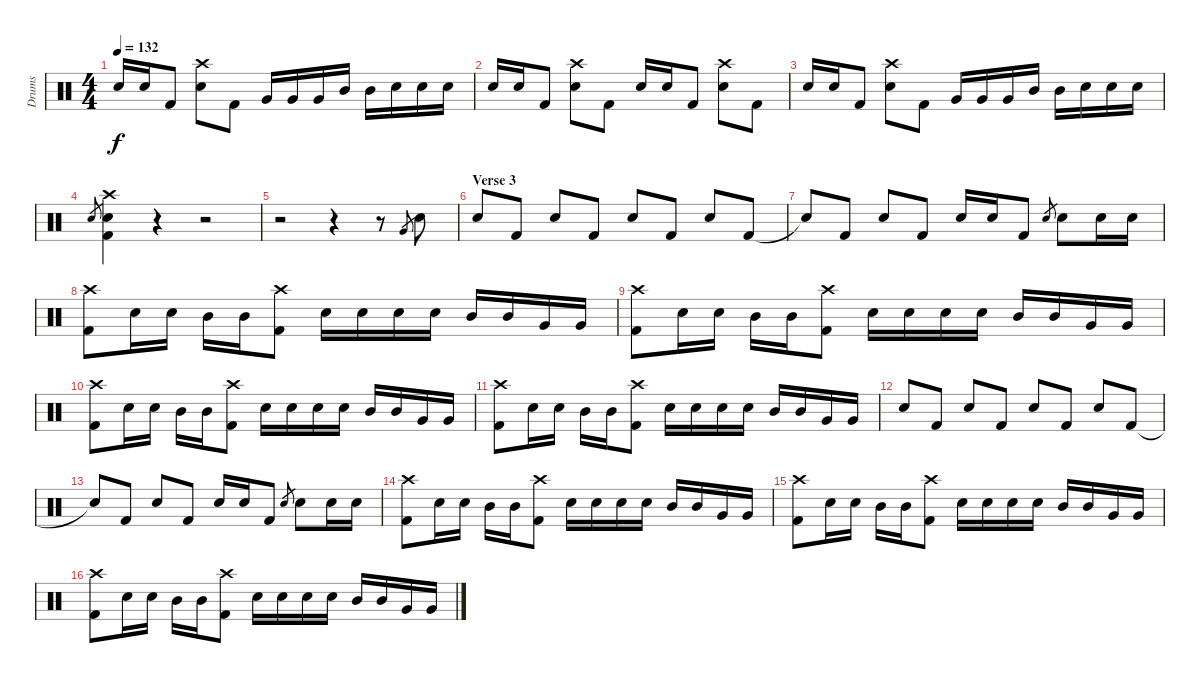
\track ("Drums" "Drums") {instrument percussion}
\staff {score}
\articulation defaults
\ts (4 4)
\tempo 132
\clef neutral
\ks c "Electric Snare (hit)".16{dy f} "Electric Snare (hit)".16 "Kick (hit) 2".8
("Crash high (hit)" "Electric Snare (hit)").8 "Kick (hit) 2".8 "Very Low Tom (hit)".16 "Very Low Tom (hit)".16 "Very Low Tom (hit)".16 "Mid Tom (hit)".16 "Mid Tom (hit)".16 "Electric Snare (hit)".16 "Electric Snare (hit)".16 "Electric Snare (hit)".16 |
"Electric Snare (hit)".16 "Electric Snare (hit)".16 "Kick (hit) 2".8 ("Crash high (hit)" "Electric Snare (hit)").8 "Kick (hit) 2".8 "Electric Snare (hit)".16 "Electric Snare (hit)".16 "Kick (hit) 2".8 ("Crash high (hit)" "Electric Snare (hit)").8 "Kick (hit) 2".8 |
"Electric Snare (hit)".16 "Electric Snare (hit)".16 "Kick (hit) 2".8 ("Crash high (hit)" "Electric Snare (hit)").8 "Kick (hit) 2".8 "Very Low Tom (hit)".16 "Very Low Tom (hit)".16 "Very Low Tom (hit)".16 "Mid Tom (hit)".16 "Mid Tom (hit)".16 "Electric Snare (hit)".16 "Electric Snare (hit)".16 "Electric Snare (hit)".16 |
"Electric Snare (hit)".8{gr} ("Crash high (hit)" "Electric Snare (hit)" "Kick (hit) 2").4 r.4 r.2 |
r.2 r.4 r.8 "Very Low Tom (hit)".8{gr} "Electric Snare (hit)".8 |
\section ("" "Verse 3")
"Electric Snare (hit)".8 "Kick (hit) 2".8 "Electric Snare (hit)".8 "Kick (hit) 2".8 "Electric Snare (hit)".8 "Kick (hit) 2".8 "Electric Snare (hit)".8 "Kick (hit) 2".8 |
"Snare (hit)"{t}.8 "Kick (hit) 2".8 "Electric Snare (hit)".8 "Kick (hit) 2".8 "Electric Snare (hit)".16 "Electric Snare (hit)".16 "Kick (hit) 2".8 "Electric Snare (hit)".8{gr} "Electric Snare (hit)".8 "Electric Snare (hit)".16 "Electric Snare (hit)".16 |
("Crash high (hit)" "Kick (hit) 2").8 "Electric Snare (hit)".16 "Electric Snare (hit)".16 "Mid Tom (hit)".16 "Mid Tom (hit)".16 ("Crash high (hit)" "Kick (hit) 2").8 "Electric Snare (hit)".16 "Electric Snare (hit)".16 "Electric Snare (hit)".16 "Electric Snare (hit)".16 "Mid Tom (hit)".16 "Mid Tom (hit)".16 "Very Low Tom (hit)".16 "Very Low Tom (hit)".16 |
("Crash high (hit)" "Kick (hit) 2").8 "Electric Snare (hit)".16 "Electric Snare (hit)".16 "Mid Tom (hit)".16 "Mid Tom (hit)".16 ("Crash high (hit)" "Kick (hit) 2").8 "Electric Snare (hit)".16 "Electric Snare (hit)".16 "Electric Snare (hit)".16 "Electric Snare (hit)".16 "Mid Tom (hit)".16 "Mid Tom (hit)".16 "Very Low Tom (hit)".16 "Very Low Tom (hit)".16 |
("Crash high (hit)" "Kick (hit) 2").8 "Electric Snare (hit)".16 "Electric Snare (hit)".16 "Mid Tom (hit)".16 "Mid Tom (hit)".16 ("Crash high (hit)" "Kick (hit) 2").8 "Electric Snare (hit)".16 "Electric Snare (hit)".16 "Electric Snare (hit)".16 "Electric Snare (hit)".16 "Mid Tom (hit)".16 "Mid Tom (hit)".16 "Very Low Tom (hit)".16 "Very Low Tom (hit)".16 |
("Crash high (hit)" "Kick (hit) 2").8 "Electric Snare (hit)".16 "Electric Snare (hit)".16 "Mid Tom (hit)".16 "Mid Tom (hit)".16 ("Crash high (hit)" "Kick (hit) 2").8 "Electric Snare (hit)".16 "Electric Snare (hit)".16 "Electric Snare (hit)".16 "Electric Snare (hit)".16 "Mid Tom (hit)".16 "Mid Tom (hit)".16 "Very Low Tom (hit)".16 "Very Low Tom (hit)".16 |
"Electric Snare (hit)".8 "Kick (hit) 2".8 "Electric Snare (hit)".8 "Kick (hit) 2".8 "Electric Snare (hit)".8 "Kick (hit) 2".8 "Electric Snare (hit)".8 "Kick (hit) 2".8 |
"Snare (hit)"{t}.8 "Kick (hit) 2".8 "Electric Snare (hit)".8 "Kick (hit) 2".8 "Electric Snare (hit)".16 "Electric Snare (hit)".16 "Kick (hit) 2".8 "Electric Snare (hit)".8{gr} "Electric Snare (hit)".8 "Electric Snare (hit)".16 "Electric Snare (hit)".16 |
("Crash high (hit)" "Kick (hit) 2").8 "Electric Snare (hit)".16 "Electric Snare (hit)".16 "Mid Tom (hit)".16 "Mid Tom (hit)".16 ("Crash high (hit)" "Kick (hit) 2").8 "Electric Snare (hit)".16 "Electric Snare (hit)".16 "Electric Snare (hit)".16 "Electric Snare (hit)".16 "Mid Tom (hit)".16 "Mid Tom (hit)".16 "Very Low Tom (hit)".16 "Very Low Tom (hit)".16 |
("Crash high (hit)" "Kick (hit) 2").8 "Electric Snare (hit)".16 "Electric Snare (hit)".16 "Mid Tom (hit)".16 "Mid Tom (hit)".16 ("Crash high (hit)" "Kick (hit) 2").8 "Electric Snare (hit)".16 "Electric Snare (hit)".16 "Electric Snare (hit)".16 "Electric Snare (hit)".16 "Mid Tom (hit)".16 "Mid Tom (hit)".16 "Very Low Tom (hit)".16 "Very Low Tom (hit)".16 |
("Crash high (hit)" "Kick (hit) 2").8 "Electric Snare (hit)".16 "Electric Snare (hit)".16 "Mid Tom (hit)".16 "Mid Tom (hit)".16 ("Crash high (hit)" "Kick (hit) 2").8 "Electric Snare (hit)".16 "Electric Snare (hit)".16 "Electric Snare (hit)".16 "Electric Snare (hit)".16 "Mid Tom (hit)".16 "Mid Tom (hit)".16 "Very Low Tom (hit)".16 "Very Low Tom (hit)".16
